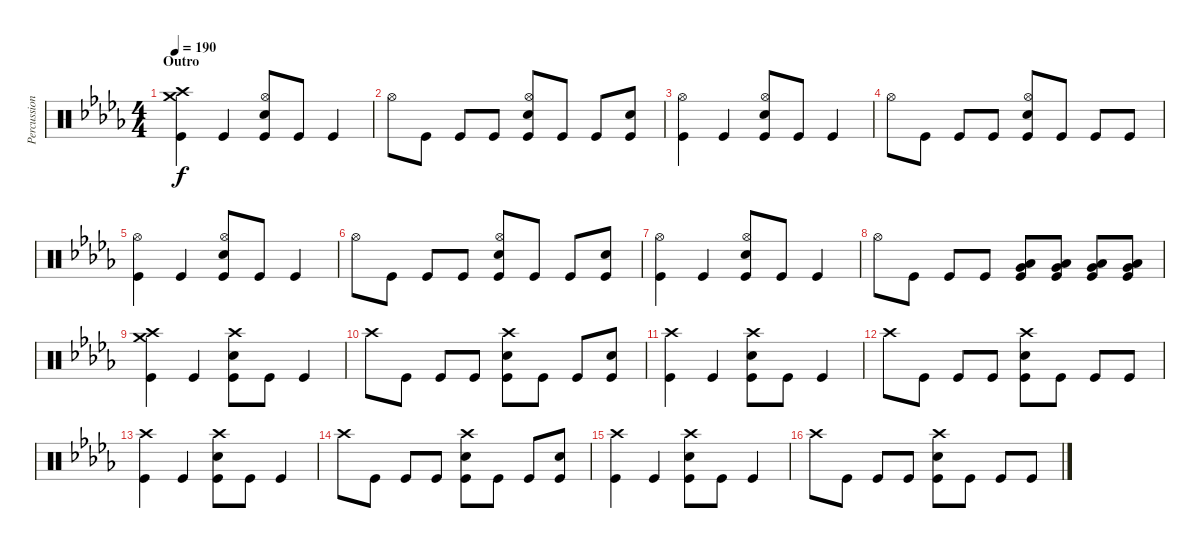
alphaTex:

\track ("Percussion" "Percussion") {instrument percussion}
\staff {score}
\articulation defaults
\ts (4 4)
\section ("" "Outro")
\tempo 190
\clef neutral
\ks db
("Crash high (hit)" "Crash medium (hit)" "Kick (hit)").4{dy f} "Kick (hit)".4 ("Hi-Hat (open)" "Electric Snare (hit)" "Kick (hit)").8 "Kick (hit)".8 "Kick (hit)".4 |
"Hi-Hat (open)".8 "Kick (hit)".8 "Kick (hit)".8 "Kick (hit)".8 ("Hi-Hat (open)" "Electric Snare (hit)" "Kick (hit)").8 "Kick (hit)".8 "Kick (hit)".8 ("Electric Snare (hit)" "Kick (hit)").8 |
("Hi-Hat (open)" "Kick (hit)").4 "Kick (hit)".4 ("Hi-Hat (open)" "Electric Snare (hit)" "Kick (hit)").8 "Kick (hit)".8 "Kick (hit)".4 |
"Hi-Hat (open)".8 "Kick (hit)".8 "Kick (hit)".8 "Kick (hit)".8 ("Hi-Hat (open)" "Electric Snare (hit)" "Kick (hit)").8 "Kick (hit)".8 "Kick (hit)".8 "Kick (hit)".8 |
("Hi-Hat (open)" "Kick (hit)").4 "Kick (hit)".4 ("Hi-Hat (open)" "Electric Snare (hit)" "Kick (hit)").8 "Kick (hit)".8 "Kick (hit)".4 |
"Hi-Hat (open)".8 "Kick (hit)".8 "Kick (hit)".8 "Kick (hit)".8 ("Hi-Hat (open)" "Electric Snare (hit)" "Kick (hit)").8 "Kick (hit)".8 "Kick (hit)".8 ("Electric Snare (hit)" "Kick (hit)").8 |
("Hi-Hat (open)" "Kick (hit)").4 "Kick (hit)".4 ("Hi-Hat (open)" "Electric Snare (hit)" "Kick (hit)").8 "Kick (hit)".8 "Kick (hit)".4 |
"Hi-Hat (open)".8 "Kick (hit)".8 "Kick (hit)".8 "Kick (hit)".8 ("Low Tom (hit)" "Very Low Tom (hit)" "Kick (hit)").8 ("Low Tom (hit)" "Very Low Tom (hit)" "Kick (hit)").8 ("Low Tom (hit)" "Very Low Tom (hit)" "Kick (hit)").8 ("Low Tom (hit)" "Very Low Tom (hit)" "Kick (hit)").8 |
("Crash high (hit)" "Crash medium (hit)" "Kick (hit)").4 "Kick (hit)".4 ("Crash high (hit)" "Electric Snare (hit)" "Kick (hit)").8 "Kick (hit)".8 "Kick (hit)".4 |
"Crash high (hit)".8 "Kick (hit)".8 "Kick (hit)".8 "Kick (hit)".8 ("Crash high (hit)" "Electric Snare (hit)" "Kick (hit)").8 "Kick (hit)".8 "Kick (hit)".8 ("Electric Snare (hit)" "Kick (hit)").8 |
("Crash high (hit)" "Kick (hit)").4 "Kick (hit)".4 ("Crash high (hit)" "Electric Snare (hit)" "Kick (hit)").8 "Kick (hit)".8 "Kick (hit)".4 |
"Crash high (hit)".8 "Kick (hit)".8 "Kick (hit)".8 "Kick (hit)".8 ("Crash high (hit)" "Electric Snare (hit)" "Kick (hit)").8 "Kick (hit)".8 "Kick (hit)".8 "Kick (hit)".8 |
("Crash high (hit)" "Kick (hit)").4 "Kick (hit)".4 ("Crash high (hit)" "Electric Snare (hit)" "Kick (hit)").8 "Kick (hit)".8 "Kick (hit)".4 |
"Crash high (hit)".8 "Kick (hit)".8 "Kick (hit)".8 "Kick (hit)".8 ("Crash high (hit)" "Electric Snare (hit)" "Kick (hit)").8 "Kick (hit)".8 "Kick (hit)".8 ("Electric Snare (hit)" "Kick (hit)").8 |
("Crash high (hit)" "Kick (hit)").4 "Kick (hit)".4 ("Crash high (hit)" "Electric Snare (hit)" "Kick (hit)").8 "Kick (hit)".8 "Kick (hit)".4 |
"Crash high (hit)".8 "Kick (hit)".8 "Kick (hit)".8 "Kick (hit)".8 ("Crash high (hit)" "Electric Snare (hit)" "Kick (hit)").8 "Kick (hit)".8 "Kick (hit)".8 "Kick (hit)".8
